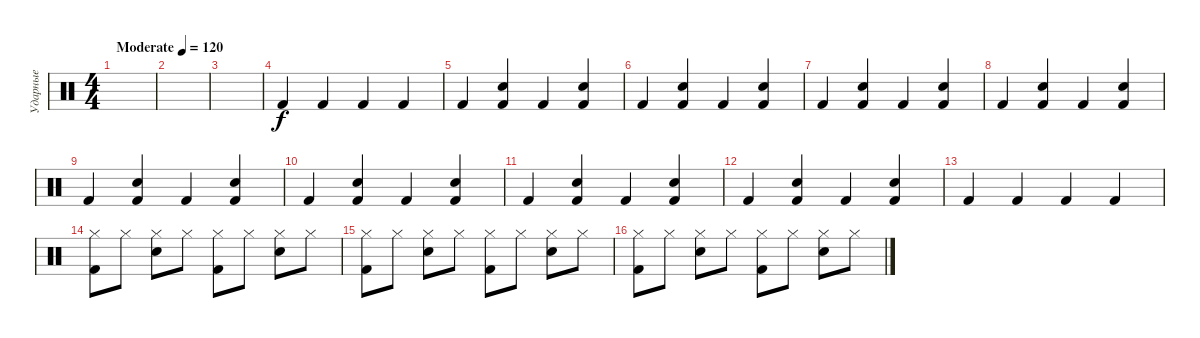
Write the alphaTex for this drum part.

\track ("Ударные" "Ударные") {instrument percussion}
\staff {score}
\articulation defaults
\ts (4 4)
\tempo (120 "Moderate")
\clef neutral
\ks c
|
|
|
"Kick (hit) 2".4 "Kick (hit) 2".4 "Kick (hit) 2".4 "Kick (hit) 2".4 |
"Kick (hit) 2".4 ("Kick (hit) 2" "Electric Snare (hit)").4 "Kick (hit) 2".4 ("Kick (hit) 2" "Electric Snare (hit)").4 |
"Kick (hit) 2".4 ("Kick (hit) 2" "Electric Snare (hit)").4 "Kick (hit) 2".4 ("Kick (hit) 2" "Electric Snare (hit)").4 |
"Kick (hit) 2".4 ("Kick (hit) 2" "Electric Snare (hit)").4 "Kick (hit) 2".4 ("Kick (hit) 2" "Electric Snare (hit)").4 |
"Kick (hit) 2".4 ("Kick (hit) 2" "Electric Snare (hit)").4 "Kick (hit) 2".4 ("Kick (hit) 2" "Electric Snare (hit)").4 |
"Kick (hit) 2".4 ("Kick (hit) 2" "Electric Snare (hit)").4 "Kick (hit) 2".4 ("Kick (hit) 2" "Electric Snare (hit)").4 |
"Kick (hit) 2".4 ("Kick (hit) 2" "Electric Snare (hit)").4 "Kick (hit) 2".4 ("Kick (hit) 2" "Electric Snare (hit)").4 |
"Kick (hit) 2".4 ("Kick (hit) 2" "Electric Snare (hit)").4 "Kick (hit) 2".4 ("Kick (hit) 2" "Electric Snare (hit)").4 |
"Kick (hit) 2".4 ("Kick (hit) 2" "Electric Snare (hit)").4 "Kick (hit) 2".4 ("Kick (hit) 2" "Electric Snare (hit)").4 |
"Kick (hit) 2".4 "Kick (hit) 2".4 "Kick (hit) 2".4 "Kick (hit) 2".4 |
("Hi-Hat (closed)" "Kick (hit) 2").8 "Hi-Hat (closed)".8 ("Hi-Hat (closed)" "Electric Snare (hit)").8 "Hi-Hat (closed)".8 ("Hi-Hat (closed)" "Kick (hit) 2").8 "Hi-Hat (closed)".8 ("Hi-Hat (closed)" "Electric Snare (hit)").8 "Hi-Hat (closed)".8 |
("Hi-Hat (closed)" "Kick (hit) 2").8 "Hi-Hat (closed)".8 ("Hi-Hat (closed)" "Electric Snare (hit)").8 "Hi-Hat (closed)".8 ("Hi-Hat (closed)" "Kick (hit) 2").8 "Hi-Hat (closed)".8 ("Hi-Hat (closed)" "Electric Snare (hit)").8 "Hi-Hat (closed)".8 |
("Hi-Hat (closed)" "Kick (hit) 2").8 "Hi-Hat (closed)".8 ("Hi-Hat (closed)" "Electric Snare (hit)").8 "Hi-Hat (closed)".8 ("Hi-Hat (closed)" "Kick (hit) 2").8 "Hi-Hat (closed)".8 ("Hi-Hat (closed)" "Electric Snare (hit)").8 "Hi-Hat (closed)".8
